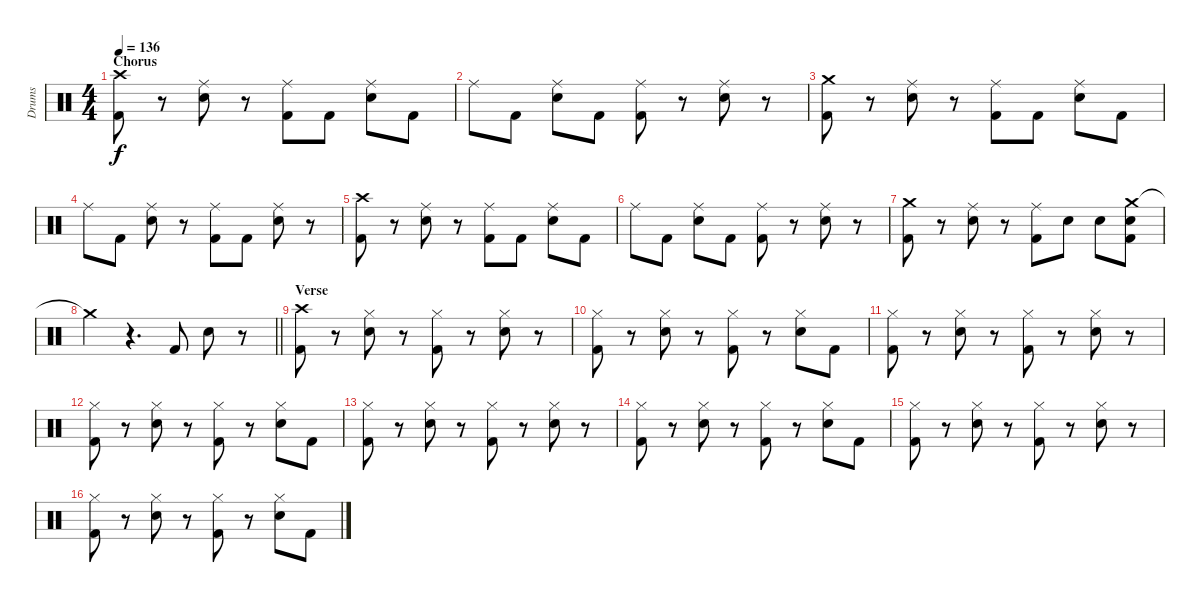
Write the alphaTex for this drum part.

\track ("Drums" "Drums") {instrument percussion}
\staff {score}
\articulation defaults
\ts (4 4)
\section ("" "Chorus")
\tempo 136
\clef neutral
\ks c
("Crash high (hit)" "Kick (hit) 2").8{dy f} r.8 ("Ride (middle)" "Electric Snare (hit)").8 r.8 ("Ride (middle)" "Kick (hit) 2").8 "Kick (hit) 2".8 ("Ride (middle)" "Electric Snare (hit)").8 "Kick (hit) 2".8 |
"Ride (middle)".8 "Kick (hit) 2".8 ("Ride (middle)" "Electric Snare (hit)").8 "Kick (hit) 2".8 ("Ride (middle)" "Kick (hit) 2").8 r.8 ("Ride (middle)" "Electric Snare (hit)").8 r.8 |
("Crash medium (hit)" "Kick (hit) 2").8 r.8 ("Ride (middle)" "Electric Snare (hit)").8 r.8 ("Ride (middle)" "Kick (hit) 2").8 "Kick (hit) 2".8 ("Ride (middle)" "Electric Snare (hit)").8 "Kick (hit) 2".8 |
"Ride (middle)".8 "Kick (hit) 2".8 ("Ride (middle)" "Electric Snare (hit)").8 r.8 ("Ride (middle)" "Kick (hit) 2").8 "Kick (hit) 2".8 ("Ride (middle)" "Electric Snare (hit)").8 r.8 |
("Crash high (hit)" "Kick (hit) 2").8 r.8 ("Ride (middle)" "Electric Snare (hit)").8 r.8 ("Ride (middle)" "Kick (hit) 2").8 "Kick (hit) 2".8 ("Ride (middle)" "Electric Snare (hit)").8 "Kick (hit) 2".8 |
"Ride (middle)".8 "Kick (hit) 2".8 ("Ride (middle)" "Electric Snare (hit)").8 "Kick (hit) 2".8 ("Ride (middle)" "Kick (hit) 2").8 r.8 ("Ride (middle)" "Electric Snare (hit)").8 r.8 |
("Crash medium (hit)" "Kick (hit) 2").8 r.8 ("Ride (middle)" "Electric Snare (hit)").8 r.8 ("Ride (middle)" "Kick (hit) 2").8 "Electric Snare (hit)".8 "Electric Snare (hit)".8 ("Crash medium (hit)" "Electric Snare (hit)" "Kick (hit) 2").8 |
\barLineRight lightlight "Crash medium (hit)"{t}.4
r.4{d} "Kick (hit) 2".8 "Electric Snare (hit)".8 r.8 |
\section ("" "Verse")
("Crash high (hit)" "Kick (hit) 2").8 r.8 ("Hi-Hat (closed)" "Electric Snare (hit)").8 r.8 ("Hi-Hat (closed)" "Kick (hit) 2").8 r.8 ("Hi-Hat (closed)" "Electric Snare (hit)").8 r.8 |
("Hi-Hat (closed)" "Kick (hit) 2").8 r.8 ("Hi-Hat (closed)" "Electric Snare (hit)").8 r.8 ("Hi-Hat (closed)" "Kick (hit) 2").8 r.8 ("Hi-Hat (closed)" "Electric Snare (hit)").8 "Kick (hit) 2".8 |
("Hi-Hat (closed)" "Kick (hit) 2").8 r.8 ("Hi-Hat (closed)" "Electric Snare (hit)").8 r.8 ("Hi-Hat (closed)" "Kick (hit) 2").8 r.8 ("Hi-Hat (closed)" "Electric Snare (hit)").8 r.8 |
("Hi-Hat (closed)" "Kick (hit) 2").8 r.8 ("Hi-Hat (closed)" "Electric Snare (hit)").8 r.8 ("Hi-Hat (closed)" "Kick (hit) 2").8 r.8 ("Hi-Hat (closed)" "Electric Snare (hit)").8 "Kick (hit) 2".8 |
("Hi-Hat (closed)" "Kick (hit) 2").8 r.8 ("Hi-Hat (closed)" "Electric Snare (hit)").8 r.8 ("Hi-Hat (closed)" "Kick (hit) 2").8 r.8 ("Hi-Hat (closed)" "Electric Snare (hit)").8 r.8 |
("Hi-Hat (closed)" "Kick (hit) 2").8 r.8 ("Hi-Hat (closed)" "Electric Snare (hit)").8 r.8 ("Hi-Hat (closed)" "Kick (hit) 2").8 r.8 ("Hi-Hat (closed)" "Electric Snare (hit)").8 "Kick (hit) 2".8 |
("Hi-Hat (closed)" "Kick (hit) 2").8 r.8 ("Hi-Hat (closed)" "Electric Snare (hit)").8 r.8 ("Hi-Hat (closed)" "Kick (hit) 2").8 r.8 ("Hi-Hat (closed)" "Electric Snare (hit)").8 r.8 |
("Hi-Hat (closed)" "Kick (hit) 2").8 r.8 ("Hi-Hat (closed)" "Electric Snare (hit)").8 r.8 ("Hi-Hat (closed)" "Kick (hit) 2").8 r.8 ("Hi-Hat (closed)" "Electric Snare (hit)").8 "Kick (hit) 2".8
